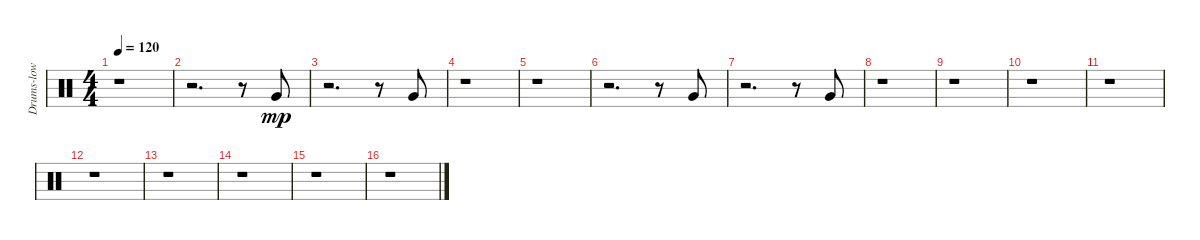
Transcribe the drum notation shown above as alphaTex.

\track ("Drums-low tom 1" "Drums-low ") {instrument percussion}
\staff {score}
\articulation defaults
\ts (4 4)
\tempo 120
\clef neutral
\ks c
r.1{dy mp} |
r.2{d} r.8 "Very Low Tom (hit)".8 |
r.2{d} r.8 "Very Low Tom (hit)".8 |
r.1 |
r.1 |
r.2{d} r.8 "Very Low Tom (hit)".8 |
r.2{d} r.8 "Very Low Tom (hit)".8 |
r.1 |
r.1 |
r.1 |
r.1 |
r.1 |
r.1 |
r.1 |
r.1 |
r.1
